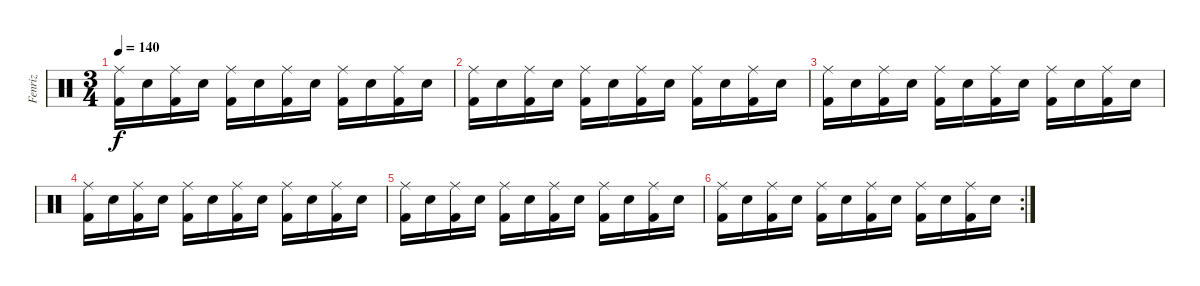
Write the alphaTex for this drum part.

\track ("Fenriz" "Fenriz") {instrument percussion}
\staff {score}
\articulation defaults
\ts (3 4)
\tempo 140
\clef neutral
\ks c
("Ride (middle)" "Kick (hit) 2").16{dy f} "Snare (hit) 2".16 ("Ride (middle)" "Kick (hit) 2").16 "Snare (hit) 2".16 ("Ride (middle)" "Kick (hit) 2").16 "Snare (hit) 2".16 ("Ride (middle)" "Kick (hit) 2").16 "Snare (hit) 2".16 ("Ride (middle)" "Kick (hit) 2").16 "Snare (hit) 2".16 ("Ride (middle)" "Kick (hit) 2").16 "Snare (hit) 2".16 |
("Ride (middle)" "Kick (hit) 2").16 "Snare (hit) 2".16 ("Ride (middle)" "Kick (hit) 2").16 "Snare (hit) 2".16 ("Ride (middle)" "Kick (hit) 2").16 "Snare (hit) 2".16 ("Ride (middle)" "Kick (hit) 2").16 "Snare (hit) 2".16 ("Ride (middle)" "Kick (hit) 2").16 "Snare (hit) 2".16 ("Ride (middle)" "Kick (hit) 2").16 "Snare (hit) 2".16 |
("Ride (middle)" "Kick (hit) 2").16 "Snare (hit) 2".16 ("Ride (middle)" "Kick (hit) 2").16 "Snare (hit) 2".16 ("Ride (middle)" "Kick (hit) 2").16 "Snare (hit) 2".16 ("Ride (middle)" "Kick (hit) 2").16 "Snare (hit) 2".16 ("Ride (middle)" "Kick (hit) 2").16 "Snare (hit) 2".16 ("Ride (middle)" "Kick (hit) 2").16 "Snare (hit) 2".16 |
("Ride (middle)" "Kick (hit) 2").16 "Snare (hit) 2".16 ("Ride (middle)" "Kick (hit) 2").16 "Snare (hit) 2".16 ("Ride (middle)" "Kick (hit) 2").16 "Snare (hit) 2".16 ("Ride (middle)" "Kick (hit) 2").16 "Snare (hit) 2".16 ("Ride (middle)" "Kick (hit) 2").16 "Snare (hit) 2".16 ("Ride (middle)" "Kick (hit) 2").16 "Snare (hit) 2".16 |
("Ride (middle)" "Kick (hit) 2").16 "Snare (hit) 2".16 ("Ride (middle)" "Kick (hit) 2").16 "Snare (hit) 2".16 ("Ride (middle)" "Kick (hit) 2").16 "Snare (hit) 2".16 ("Ride (middle)" "Kick (hit) 2").16 "Snare (hit) 2".16 ("Ride (middle)" "Kick (hit) 2").16 "Snare (hit) 2".16 ("Ride (middle)" "Kick (hit) 2").16 "Snare (hit) 2".16 |
\rc 2
("Ride (middle)" "Kick (hit) 2").16 "Snare (hit) 2".16 ("Ride (middle)" "Kick (hit) 2").16 "Snare (hit) 2".16 ("Ride (middle)" "Kick (hit) 2").16 "Snare (hit) 2".16 ("Ride (middle)" "Kick (hit) 2").16 "Snare (hit) 2".16 ("Ride (middle)" "Kick (hit) 2").16 "Snare (hit) 2".16 ("Ride (middle)" "Kick (hit) 2").16 "Snare (hit) 2".16
